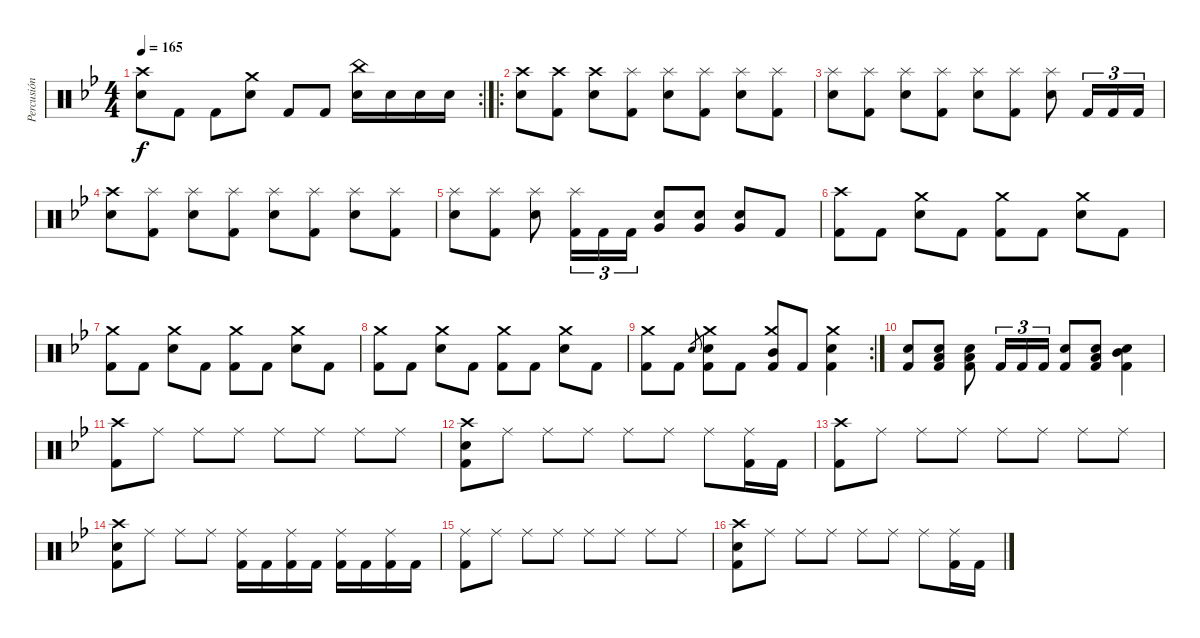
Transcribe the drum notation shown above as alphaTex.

\track ("Percusión" "Percusión") {instrument percussion}
\staff {score}
\articulation defaults
\rc 2
\ts (4 4)
\tempo 165
\clef neutral
\ks bb
("Crash high (hit)" "Electric Snare (hit)").8{dy f} "Kick (hit) 2".8 "Kick (hit) 2".8 ("Crash medium (hit)" "Electric Snare (hit)").8 "Kick (hit) 2".8 "Kick (hit) 2".8 ("China (hit)" "Electric Snare (hit)").16 "Electric Snare (hit)".16 "Electric Snare (hit)".16 "Electric Snare (hit)".16 |
\ro
("Crash high (hit)" "Electric Snare (hit)").8 ("Crash high (hit)" "Kick (hit) 2").8 ("Crash high (hit)" "Electric Snare (hit)").8 ("Splash (hit)" "Kick (hit) 2").8 ("Splash (hit)" "Electric Snare (hit)").8 ("Splash (hit)" "Kick (hit) 2").8 ("Splash (hit)" "Electric Snare (hit)").8 ("Splash (hit)" "Kick (hit) 2").8 |
("Splash (hit)" "Electric Snare (hit)").8 ("Splash (hit)" "Kick (hit) 2").8 ("Splash (hit)" "Electric Snare (hit)").8 ("Splash (hit)" "Kick (hit) 2").8 ("Splash (hit)" "Electric Snare (hit)").8 ("Splash (hit)" "Kick (hit) 2").8 ("Splash (hit)" "Electric Snare (hit)").8 "Kick (hit) 2".16{tu (3 2)} "Kick (hit) 2".16{tu (3 2)} "Kick (hit) 2".16{tu (3 2)} |
("Crash high (hit)" "Electric Snare (hit)").8 ("Splash (hit)" "Kick (hit) 2").8 ("Splash (hit)" "Electric Snare (hit)").8 ("Splash (hit)" "Kick (hit) 2").8 ("Splash (hit)" "Electric Snare (hit)").8 ("Splash (hit)" "Kick (hit) 2").8 ("Splash (hit)" "Electric Snare (hit)").8 ("Splash (hit)" "Kick (hit) 2").8 |
("Splash (hit)" "Electric Snare (hit)").8 ("Splash (hit)" "Kick (hit) 2").8 ("Splash (hit)" "Electric Snare (hit)").8 ("Splash (hit)" "Kick (hit) 2").16{tu (3 2)} "Kick (hit) 2".16{tu (3 2)} "Kick (hit) 2".16{tu (3 2)} ("Electric Snare (hit)" "Very Low Tom (hit)").8 ("Electric Snare (hit)" "Very Low Tom (hit)").8 ("Electric Snare (hit)" "Very Low Tom (hit)").8 "Kick (hit) 2".8 |
("Crash high (hit)" "Kick (hit) 2").8 "Kick (hit) 2".8 ("Crash medium (hit)" "Electric Snare (hit)").8 "Kick (hit) 2".8 ("Crash medium (hit)" "Kick (hit) 2").8 "Kick (hit) 2".8 ("Crash medium (hit)" "Electric Snare (hit)").8 "Kick (hit) 2".8 |
("Crash medium (hit)" "Kick (hit) 2").8 "Kick (hit) 2".8 ("Crash medium (hit)" "Electric Snare (hit)").8 "Kick (hit) 2".8 ("Crash medium (hit)" "Kick (hit) 2").8 "Kick (hit) 2".8 ("Crash medium (hit)" "Electric Snare (hit)").8 "Kick (hit) 2".8 |
("Crash medium (hit)" "Kick (hit) 2").8 "Kick (hit) 2".8 ("Crash medium (hit)" "Electric Snare (hit)").8 "Kick (hit) 2".8 ("Crash medium (hit)" "Kick (hit) 2").8 "Kick (hit) 2".8 ("Crash medium (hit)" "Electric Snare (hit)").8 "Kick (hit) 2".8 |
\rc 2
("Crash medium (hit)" "Kick (hit) 2").8 "Kick (hit) 2".8 "Electric Snare (hit)".8{gr} ("Crash medium (hit)" "Electric Snare (hit)" "Kick (hit) 2").8 "Kick (hit) 2".8 ("Crash medium (hit)" "Mid Tom (hit)" "Kick (hit) 2").8 "Kick (hit) 2".8 ("Crash medium (hit)" "Electric Snare (hit)" "Kick (hit) 2").4 |
("Electric Snare (hit)" "Kick (hit) 2").8 ("Low Tom (hit)" "Electric Snare (hit)" "Kick (hit) 2").8 ("Low Tom (hit)" "Electric Snare (hit)" "Kick (hit) 2").8 "Kick (hit) 2".16{tu (3 2)} "Kick (hit) 2".16{tu (3 2)} "Kick (hit) 2".16{tu (3 2)} ("Electric Snare (hit)" "Kick (hit) 2").8 ("Low Tom (hit)" "Electric Snare (hit)" "Kick (hit) 2").8 ("Mid Tom (hit)" "Electric Snare (hit)" "Kick (hit) 2").4 |
("Crash high (hit)" "Kick (hit) 2").8 "Ride (middle)".8 "Ride (middle)".8 "Ride (middle)".8 "Ride (middle)".8 "Ride (middle)".8 "Ride (middle)".8 "Ride (middle)".8 |
("Crash high (hit)" "Electric Snare (hit)" "Kick (hit) 2").8 "Ride (middle)".8 "Ride (middle)".8 "Ride (middle)".8 "Ride (middle)".8 "Ride (middle)".8 "Ride (middle)".8 ("Ride (middle)" "Kick (hit) 2").16 "Kick (hit) 2".16 |
("Crash high (hit)" "Kick (hit) 2").8 "Ride (middle)".8 "Ride (middle)".8 "Ride (middle)".8 "Ride (middle)".8 "Ride (middle)".8 "Ride (middle)".8 "Ride (middle)".8 |
("Crash high (hit)" "Electric Snare (hit)" "Kick (hit) 2").8 "Ride (middle)".8 "Ride (middle)".8 "Ride (middle)".8 ("Ride (middle)" "Kick (hit) 2").16 "Kick (hit) 2".16 ("Ride (middle)" "Kick (hit) 2").16 "Kick (hit) 2".16 ("Ride (middle)" "Kick (hit) 2").16 "Kick (hit) 2".16 ("Ride (middle)" "Kick (hit) 2").16 "Kick (hit) 2".16 |
("Ride (middle)" "Kick (hit) 2").8 "Ride (middle)".8 "Ride (middle)".8 "Ride (middle)".8 "Ride (middle)".8 "Ride (middle)".8 "Ride (middle)".8 "Ride (middle)".8 |
("Crash high (hit)" "Electric Snare (hit)" "Kick (hit) 2").8 "Ride (middle)".8 "Ride (middle)".8 "Ride (middle)".8 "Ride (middle)".8 "Ride (middle)".8 "Ride (middle)".8 ("Ride (middle)" "Kick (hit) 2").16 "Kick (hit) 2".16
